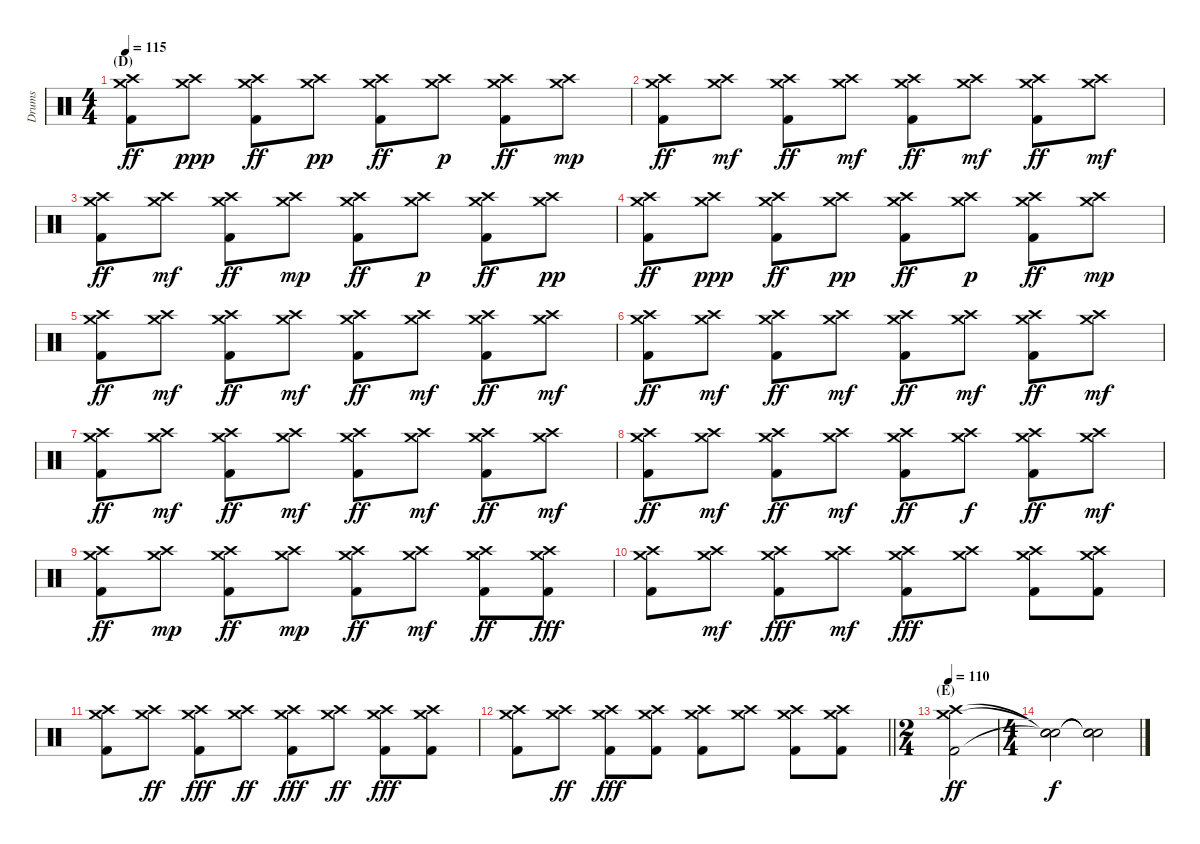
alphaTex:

\track ("Drums" "Drums") {instrument percussion}
\staff {score}
\articulation defaults
\ts (4 4)
\section ("" "(D)")
\tempo 115
\clef neutral
\ks c
("Crash medium (hit)" "Crash high (hit)" "Kick (hit) 2").8{dy ff} ("Crash medium (hit)" "Crash high (hit)").8{dy ppp} ("Crash medium (hit)" "Crash high (hit)" "Kick (hit) 2").8{dy ff} ("Crash medium (hit)" "Crash high (hit)").8{dy pp} ("Crash medium (hit)" "Crash high (hit)" "Kick (hit) 2").8{dy ff} ("Crash medium (hit)" "Crash high (hit)").8{dy p} ("Crash medium (hit)" "Crash high (hit)" "Kick (hit) 2").8{dy ff} ("Crash medium (hit)" "Crash high (hit)").8{dy mp} |
("Crash medium (hit)" "Crash high (hit)" "Kick (hit) 2").8{dy ff} ("Crash medium (hit)" "Crash high (hit)").8{dy mf} ("Crash medium (hit)" "Crash high (hit)" "Kick (hit) 2").8{dy ff} ("Crash medium (hit)" "Crash high (hit)").8{dy mf} ("Crash medium (hit)" "Crash high (hit)" "Kick (hit) 2").8{dy ff} ("Crash medium (hit)" "Crash high (hit)").8{dy mf} ("Crash medium (hit)" "Crash high (hit)" "Kick (hit) 2").8{dy ff} ("Crash medium (hit)" "Crash high (hit)").8{dy mf} |
("Crash medium (hit)" "Crash high (hit)" "Kick (hit) 2").8{dy ff} ("Crash medium (hit)" "Crash high (hit)").8{dy mf} ("Crash medium (hit)" "Crash high (hit)" "Kick (hit) 2").8{dy ff} ("Crash medium (hit)" "Crash high (hit)").8{dy mp} ("Crash medium (hit)" "Crash high (hit)" "Kick (hit) 2").8{dy ff} ("Crash medium (hit)" "Crash high (hit)").8{dy p} ("Crash medium (hit)" "Crash high (hit)" "Kick (hit) 2").8{dy ff} ("Crash medium (hit)" "Crash high (hit)").8{dy pp} |
("Crash medium (hit)" "Crash high (hit)" "Kick (hit) 2").8{dy ff} ("Crash medium (hit)" "Crash high (hit)").8{dy ppp} ("Crash medium (hit)" "Crash high (hit)" "Kick (hit) 2").8{dy ff} ("Crash medium (hit)" "Crash high (hit)").8{dy pp} ("Crash medium (hit)" "Crash high (hit)" "Kick (hit) 2").8{dy ff} ("Crash medium (hit)" "Crash high (hit)").8{dy p} ("Crash medium (hit)" "Crash high (hit)" "Kick (hit) 2").8{dy ff} ("Crash medium (hit)" "Crash high (hit)").8{dy mp} |
("Crash medium (hit)" "Crash high (hit)" "Kick (hit) 2").8{dy ff} ("Crash medium (hit)" "Crash high (hit)").8{dy mf} ("Crash medium (hit)" "Crash high (hit)" "Kick (hit) 2").8{dy ff} ("Crash medium (hit)" "Crash high (hit)").8{dy mf} ("Crash medium (hit)" "Crash high (hit)" "Kick (hit) 2").8{dy ff} ("Crash medium (hit)" "Crash high (hit)").8{dy mf} ("Crash medium (hit)" "Crash high (hit)" "Kick (hit) 2").8{dy ff} ("Crash medium (hit)" "Crash high (hit)").8{dy mf} |
("Crash medium (hit)" "Crash high (hit)" "Kick (hit) 2").8{dy ff} ("Crash medium (hit)" "Crash high (hit)").8{dy mf} ("Crash medium (hit)" "Crash high (hit)" "Kick (hit) 2").8{dy ff} ("Crash medium (hit)" "Crash high (hit)").8{dy mf} ("Crash medium (hit)" "Crash high (hit)" "Kick (hit) 2").8{dy ff} ("Crash medium (hit)" "Crash high (hit)").8{dy mf} ("Crash medium (hit)" "Crash high (hit)" "Kick (hit) 2").8{dy ff} ("Crash medium (hit)" "Crash high (hit)").8{dy mf} |
("Crash medium (hit)" "Crash high (hit)" "Kick (hit) 2").8{dy ff} ("Crash medium (hit)" "Crash high (hit)").8{dy mf} ("Crash medium (hit)" "Crash high (hit)" "Kick (hit) 2").8{dy ff} ("Crash medium (hit)" "Crash high (hit)").8{dy mf} ("Crash medium (hit)" "Crash high (hit)" "Kick (hit) 2").8{dy ff} ("Crash medium (hit)" "Crash high (hit)").8{dy mf} ("Crash medium (hit)" "Crash high (hit)" "Kick (hit) 2").8{dy ff} ("Crash medium (hit)" "Crash high (hit)").8{dy mf} |
("Crash medium (hit)" "Crash high (hit)" "Kick (hit) 2").8{dy ff} ("Crash medium (hit)" "Crash high (hit)").8{dy mf} ("Crash medium (hit)" "Crash high (hit)" "Kick (hit) 2").8{dy ff} ("Crash medium (hit)" "Crash high (hit)").8{dy mf} ("Crash medium (hit)" "Crash high (hit)" "Kick (hit) 2").8{dy ff} ("Crash medium (hit)" "Crash high (hit)").8{dy f} ("Crash medium (hit)" "Crash high (hit)" "Kick (hit) 2").8{dy ff} ("Crash medium (hit)" "Crash high (hit)").8{dy mf} |
("Crash medium (hit)" "Crash high (hit)" "Kick (hit) 2").8{dy ff} ("Crash medium (hit)" "Crash high (hit)").8{dy mp} ("Crash medium (hit)" "Crash high (hit)" "Kick (hit) 2").8{dy ff} ("Crash medium (hit)" "Crash high (hit)").8{dy mp} ("Crash medium (hit)" "Crash high (hit)" "Kick (hit) 2").8{dy ff} ("Crash medium (hit)" "Crash high (hit)").8{dy mf} ("Crash medium (hit)" "Crash high (hit)" "Kick (hit) 2").8{dy ff} ("Crash medium (hit)" "Crash high (hit)" "Kick (hit) 2").8{dy fff} |
("Crash medium (hit)" "Crash high (hit)" "Kick (hit) 2").8 ("Crash medium (hit)" "Crash high (hit)").8{dy mf} ("Crash medium (hit)" "Crash high (hit)" "Kick (hit) 2").8{dy fff} ("Crash medium (hit)" "Crash high (hit)").8{dy mf} ("Crash medium (hit)" "Crash high (hit)" "Kick (hit) 2").8{dy fff} ("Crash medium (hit)" "Crash high (hit)").8 ("Crash medium (hit)" "Crash high (hit)" "Kick (hit) 2").8 ("Crash medium (hit)" "Crash high (hit)" "Kick (hit) 2").8 |
("Crash medium (hit)" "Crash high (hit)" "Kick (hit) 2").8 ("Crash medium (hit)" "Crash high (hit)").8{dy ff} ("Crash medium (hit)" "Crash high (hit)" "Kick (hit) 2").8{dy fff} ("Crash medium (hit)" "Crash high (hit)").8{dy ff} ("Crash medium (hit)" "Crash high (hit)" "Kick (hit) 2").8{dy fff} ("Crash medium (hit)" "Crash high (hit)").8{dy ff} ("Crash medium (hit)" "Crash high (hit)" "Kick (hit) 2").8{dy fff} ("Crash medium (hit)" "Crash high (hit)" "Kick (hit) 2").8 |
\barLineRight lightlight
("Crash medium (hit)" "Crash high (hit)" "Kick (hit) 2").8 ("Crash medium (hit)" "Crash high (hit)").8{dy ff} ("Crash medium (hit)" "Crash high (hit)" "Kick (hit) 2").8{dy fff} ("Crash medium (hit)" "Crash high (hit)" "Kick (hit) 2").8 ("Crash medium (hit)" "Crash high (hit)" "Kick (hit) 2").8 ("Crash medium (hit)" "Crash high (hit)").8 ("Crash medium (hit)" "Crash high (hit)" "Kick (hit) 2").8 ("Crash medium (hit)" "Crash high (hit)" "Kick (hit) 2").8 |
\ts (2 4)
\section ("" "(E)")
\tempo 110
("Crash medium (hit)" "Crash high (hit)" "Kick (hit) 2").2{dy ff} |
\ts (4 4)
("Snare (hit)"{t} "Snare (hit)"{t} "Snare (hit)"{t}).2{dy f} ("Snare (hit)"{t} "Snare (hit)"{t} "Snare (hit)"{t}).2{volume 8}
